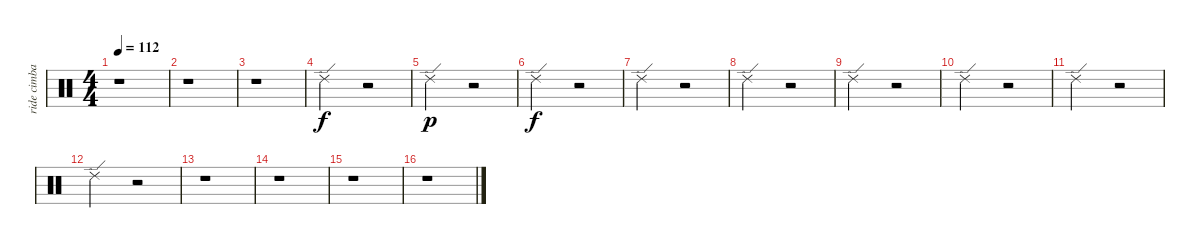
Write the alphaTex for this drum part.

\track ("ride cimbal" "ride cimba") {instrument percussion}
\staff {score}
\articulation defaults
\ts (4 4)
\tempo 112
\clef neutral
\ks c
r.1{dy f} |
r.1 |
r.1 |
"Ride (edge) 2".2 r.2 |
"Ride (edge) 2".2{dy p} r.2 |
"Ride (edge) 2".2{dy f} r.2 |
"Ride (edge) 2".2 r.2 |
"Ride (edge) 2".2 r.2 |
"Ride (edge) 2".2 r.2 |
"Ride (edge) 2".2 r.2 |
"Ride (edge) 2".2 r.2 |
"Ride (edge) 2".2 r.2 |
r.1 |
r.1 |
r.1 |
r.1
